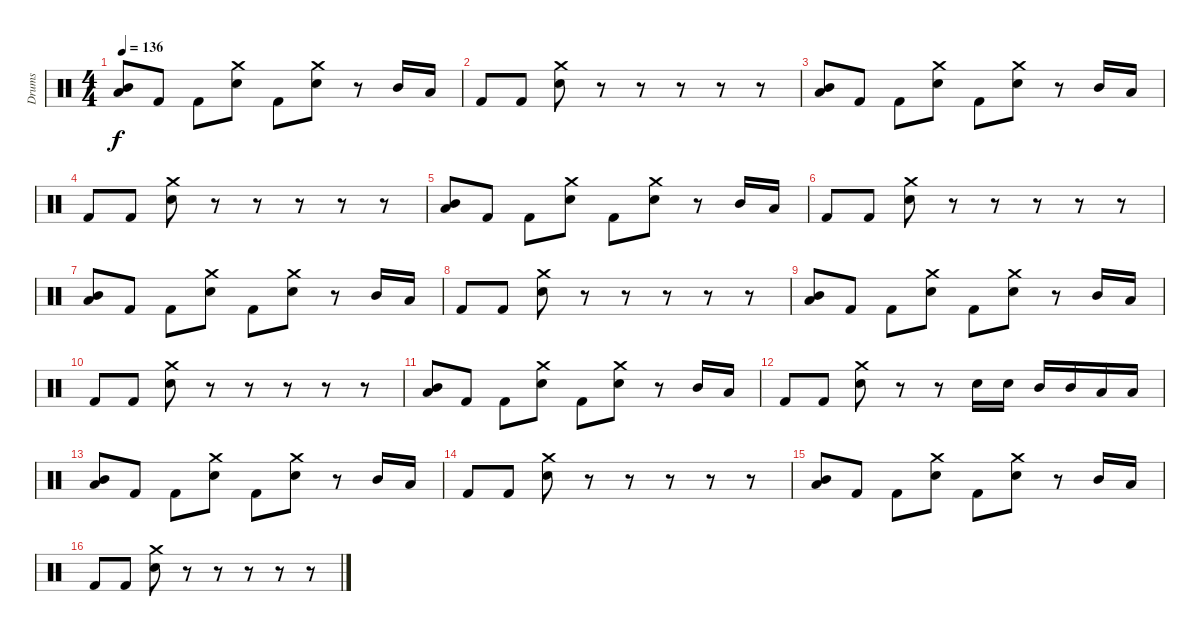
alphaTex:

\track ("Drums" "Drums") {instrument percussion}
\staff {score}
\articulation defaults
\ts (4 4)
\tempo 136
\clef neutral
\ks c
("Mid Tom (hit)" "Low Tom (hit)").8{dy f} "Kick (hit) 2".8 "Kick (hit) 2".8 ("Crash medium (hit)" "Electric Snare (hit)").8 "Kick (hit) 2".8 ("Crash medium (hit)" "Electric Snare (hit)").8 r.8 "Mid Tom (hit)".16 "Low Tom (hit)".16 |
"Kick (hit) 2".8 "Kick (hit) 2".8 ("Crash medium (hit)" "Electric Snare (hit)").8 r.8 r.8 r.8 r.8 r.8 |
("Mid Tom (hit)" "Low Tom (hit)").8 "Kick (hit) 2".8 "Kick (hit) 2".8 ("Crash medium (hit)" "Electric Snare (hit)").8 "Kick (hit) 2".8 ("Crash medium (hit)" "Electric Snare (hit)").8 r.8 "Mid Tom (hit)".16 "Low Tom (hit)".16 |
"Kick (hit) 2".8 "Kick (hit) 2".8 ("Crash medium (hit)" "Electric Snare (hit)").8 r.8 r.8 r.8 r.8 r.8 |
("Mid Tom (hit)" "Low Tom (hit)").8 "Kick (hit) 2".8 "Kick (hit) 2".8 ("Crash medium (hit)" "Electric Snare (hit)").8 "Kick (hit) 2".8 ("Crash medium (hit)" "Electric Snare (hit)").8 r.8 "Mid Tom (hit)".16 "Low Tom (hit)".16 |
"Kick (hit) 2".8 "Kick (hit) 2".8 ("Crash medium (hit)" "Electric Snare (hit)").8 r.8 r.8 r.8 r.8 r.8 |
("Mid Tom (hit)" "Low Tom (hit)").8 "Kick (hit) 2".8 "Kick (hit) 2".8 ("Crash medium (hit)" "Electric Snare (hit)").8 "Kick (hit) 2".8 ("Crash medium (hit)" "Electric Snare (hit)").8 r.8 "Mid Tom (hit)".16 "Low Tom (hit)".16 |
"Kick (hit) 2".8 "Kick (hit) 2".8 ("Crash medium (hit)" "Electric Snare (hit)").8 r.8 r.8 r.8 r.8 r.8 |
("Mid Tom (hit)" "Low Tom (hit)").8 "Kick (hit) 2".8 "Kick (hit) 2".8 ("Crash medium (hit)" "Electric Snare (hit)").8 "Kick (hit) 2".8 ("Crash medium (hit)" "Electric Snare (hit)").8 r.8 "Mid Tom (hit)".16 "Low Tom (hit)".16 |
"Kick (hit) 2".8 "Kick (hit) 2".8 ("Crash medium (hit)" "Electric Snare (hit)").8 r.8 r.8 r.8 r.8 r.8 |
("Mid Tom (hit)" "Low Tom (hit)").8 "Kick (hit) 2".8 "Kick (hit) 2".8 ("Crash medium (hit)" "Electric Snare (hit)").8 "Kick (hit) 2".8 ("Crash medium (hit)" "Electric Snare (hit)").8 r.8 "Mid Tom (hit)".16 "Low Tom (hit)".16 |
"Kick (hit) 2".8 "Kick (hit) 2".8 ("Crash medium (hit)" "Electric Snare (hit)").8 r.8 r.8 "Electric Snare (hit)".16 "Electric Snare (hit)".16 "Mid Tom (hit)".16 "Mid Tom (hit)".16 "Low Tom (hit)".16 "Low Tom (hit)".16 |
("Mid Tom (hit)" "Low Tom (hit)").8 "Kick (hit) 2".8 "Kick (hit) 2".8 ("Crash medium (hit)" "Electric Snare (hit)").8 "Kick (hit) 2".8 ("Crash medium (hit)" "Electric Snare (hit)").8 r.8 "Mid Tom (hit)".16 "Low Tom (hit)".16 |
"Kick (hit) 2".8 "Kick (hit) 2".8 ("Crash medium (hit)" "Electric Snare (hit)").8 r.8 r.8 r.8 r.8 r.8 |
("Mid Tom (hit)" "Low Tom (hit)").8 "Kick (hit) 2".8 "Kick (hit) 2".8 ("Crash medium (hit)" "Electric Snare (hit)").8 "Kick (hit) 2".8 ("Crash medium (hit)" "Electric Snare (hit)").8 r.8 "Mid Tom (hit)".16 "Low Tom (hit)".16 |
"Kick (hit) 2".8 "Kick (hit) 2".8 ("Crash medium (hit)" "Electric Snare (hit)").8 r.8 r.8 r.8 r.8 r.8
